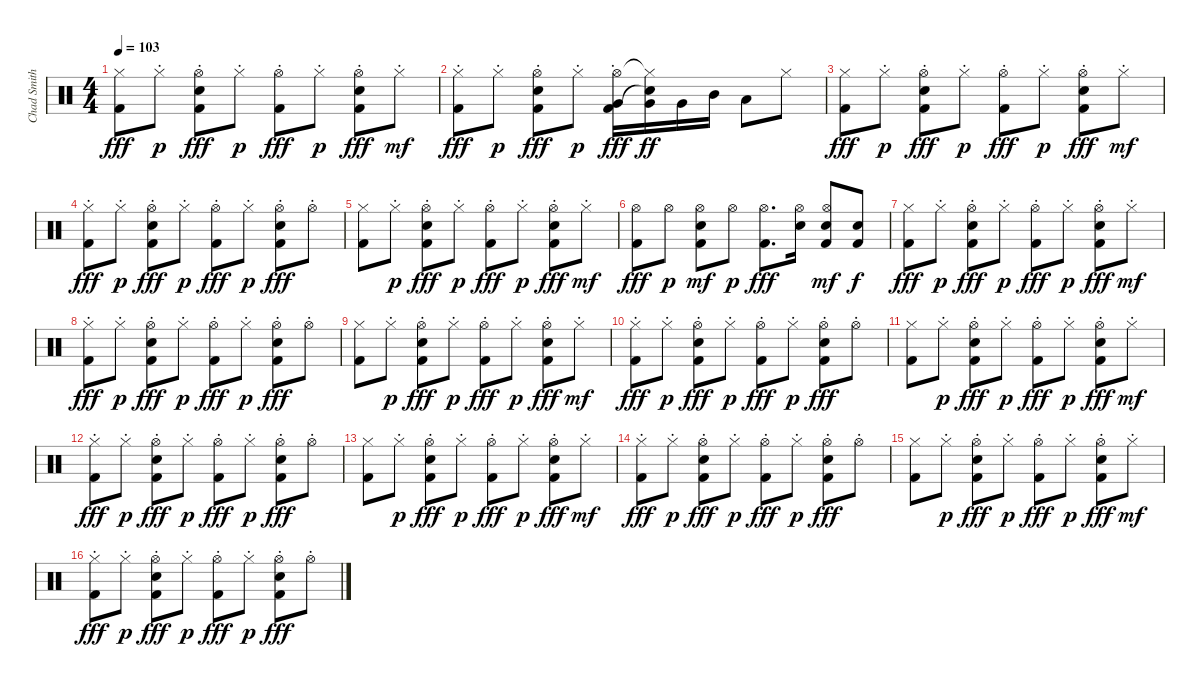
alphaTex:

\track ("Chad Smith - Drums" "Chad Smith") {instrument percussion}
\staff {score}
\articulation defaults
\ts (4 4)
\tempo 103
\clef neutral
\ks c
("Hi-Hat (closed)" "Kick (hit) 2").8{dy fff} "Hi-Hat (closed)"{st}.8{dy p} ("Hi-Hat (open)"{st} "Snare (hit) 2" "Kick (hit) 2").8{dy fff} "Hi-Hat (closed)"{st}.8{dy p} ("Hi-Hat (open)"{st} "Kick (hit) 2").8{dy fff} "Hi-Hat (closed)"{st}.8{dy p} ("Hi-Hat (open)"{st} "Snare (hit) 2" "Kick (hit) 2").8{dy fff} "Hi-Hat (closed)"{st}.8{dy mf} |
("Hi-Hat (closed)"{st} "Kick (hit) 2").8{dy fff} "Hi-Hat (closed)"{st}.8{dy p} ("Hi-Hat (open)"{st} "Snare (hit) 2" "Kick (hit) 2").8{dy fff} "Hi-Hat (closed)"{st}.8{dy p} ("Hi-Hat (open)"{st} "Very Low Tom (hit)" "Kick (hit) 2").16{dy fff} ("Hi-Hat (closed)"{t} "Very Low Tom (hit)" "Snare (hit)"{t}).16{dy ff} "Very Low Tom (hit)".16 "Mid Tom (hit)".16 "Low Tom (hit)".8 "Hi-Hat (closed)".8 |
("Hi-Hat (closed)" "Kick (hit) 2").8{dy fff} "Hi-Hat (closed)"{st}.8{dy p} ("Hi-Hat (open)"{st} "Snare (hit) 2" "Kick (hit) 2").8{dy fff} "Hi-Hat (closed)"{st}.8{dy p} ("Hi-Hat (open)"{st} "Kick (hit) 2").8{dy fff} "Hi-Hat (closed)"{st}.8{dy p} ("Hi-Hat (open)"{st} "Snare (hit) 2" "Kick (hit) 2").8{dy fff} "Hi-Hat (closed)"{st}.8{dy mf} |
("Hi-Hat (closed)"{st} "Kick (hit) 2").8{dy fff} "Hi-Hat (closed)"{st}.8{dy p} ("Hi-Hat (open)"{st} "Snare (hit) 2" "Kick (hit) 2").8{dy fff} "Hi-Hat (closed)"{st}.8{dy p} ("Hi-Hat (open)"{st} "Kick (hit) 2").8{dy fff} "Hi-Hat (closed)"{st}.8{dy p} ("Hi-Hat (open)"{st} "Snare (hit) 2" "Kick (hit) 2").8{dy fff} "Hi-Hat (open)"{st}.8 |
("Hi-Hat (closed)" "Kick (hit) 2").8 "Hi-Hat (closed)"{st}.8{dy p} ("Hi-Hat (open)"{st} "Snare (hit) 2" "Kick (hit) 2").8{dy fff} "Hi-Hat (closed)"{st}.8{dy p} ("Hi-Hat (open)"{st} "Kick (hit) 2").8{dy fff} "Hi-Hat (closed)"{st}.8{dy p} ("Hi-Hat (open)"{st} "Snare (hit) 2" "Kick (hit) 2").8{dy fff} "Hi-Hat (closed)"{st}.8{dy mf} |
("Hi-Hat (open)" "Kick (hit) 2").8{dy fff} "Hi-Hat (open)".8{dy p} ("Hi-Hat (open)" "Snare (hit) 2" "Kick (hit) 2").8{dy mf} "Hi-Hat (open)".8{dy p} ("Hi-Hat (open)" "Kick (hit) 2").8{d dy fff} ("Hi-Hat (open)" "Snare (hit) 2").16 ("Hi-Hat (open)" "Snare (hit) 2" "Kick (hit) 2").8{dy mf} ("Snare (hit) 2" "Kick (hit) 2").8{dy f} |
("Hi-Hat (closed)" "Kick (hit) 2").8{dy fff} "Hi-Hat (closed)"{st}.8{dy p} ("Hi-Hat (open)"{st} "Snare (hit) 2" "Kick (hit) 2").8{dy fff} "Hi-Hat (closed)"{st}.8{dy p} ("Hi-Hat (open)"{st} "Kick (hit) 2").8{dy fff} "Hi-Hat (closed)"{st}.8{dy p} ("Hi-Hat (open)"{st} "Snare (hit) 2" "Kick (hit) 2").8{dy fff} "Hi-Hat (closed)"{st}.8{dy mf} |
("Hi-Hat (closed)"{st} "Kick (hit) 2").8{dy fff} "Hi-Hat (closed)"{st}.8{dy p} ("Hi-Hat (open)"{st} "Snare (hit) 2" "Kick (hit) 2").8{dy fff} "Hi-Hat (closed)"{st}.8{dy p} ("Hi-Hat (open)"{st} "Kick (hit) 2").8{dy fff} "Hi-Hat (closed)"{st}.8{dy p} ("Hi-Hat (open)"{st} "Snare (hit) 2" "Kick (hit) 2").8{dy fff} "Hi-Hat (open)"{st}.8 |
("Hi-Hat (closed)" "Kick (hit) 2").8 "Hi-Hat (closed)"{st}.8{dy p} ("Hi-Hat (open)"{st} "Snare (hit) 2" "Kick (hit) 2").8{dy fff} "Hi-Hat (closed)"{st}.8{dy p} ("Hi-Hat (open)"{st} "Kick (hit) 2").8{dy fff} "Hi-Hat (closed)"{st}.8{dy p} ("Hi-Hat (open)"{st} "Snare (hit) 2" "Kick (hit) 2").8{dy fff} "Hi-Hat (closed)"{st}.8{dy mf} |
("Hi-Hat (closed)"{st} "Kick (hit) 2").8{dy fff} "Hi-Hat (closed)"{st}.8{dy p} ("Hi-Hat (open)"{st} "Snare (hit) 2" "Kick (hit) 2").8{dy fff} "Hi-Hat (closed)"{st}.8{dy p} ("Hi-Hat (open)"{st} "Kick (hit) 2").8{dy fff} "Hi-Hat (closed)"{st}.8{dy p} ("Hi-Hat (open)"{st} "Snare (hit) 2" "Kick (hit) 2").8{dy fff} "Hi-Hat (open)"{st}.8 |
("Hi-Hat (closed)" "Kick (hit) 2").8 "Hi-Hat (closed)"{st}.8{dy p} ("Hi-Hat (open)"{st} "Snare (hit) 2" "Kick (hit) 2").8{dy fff} "Hi-Hat (closed)"{st}.8{dy p} ("Hi-Hat (open)"{st} "Kick (hit) 2").8{dy fff} "Hi-Hat (closed)"{st}.8{dy p} ("Hi-Hat (open)"{st} "Snare (hit) 2" "Kick (hit) 2").8{dy fff} "Hi-Hat (closed)"{st}.8{dy mf} |
("Hi-Hat (closed)"{st} "Kick (hit) 2").8{dy fff} "Hi-Hat (closed)"{st}.8{dy p} ("Hi-Hat (open)"{st} "Snare (hit) 2" "Kick (hit) 2").8{dy fff} "Hi-Hat (closed)"{st}.8{dy p} ("Hi-Hat (open)"{st} "Kick (hit) 2").8{dy fff} "Hi-Hat (closed)"{st}.8{dy p} ("Hi-Hat (open)"{st} "Snare (hit) 2" "Kick (hit) 2").8{dy fff} "Hi-Hat (open)"{st}.8 |
("Hi-Hat (closed)" "Kick (hit) 2").8 "Hi-Hat (closed)"{st}.8{dy p} ("Hi-Hat (open)"{st} "Snare (hit) 2" "Kick (hit) 2").8{dy fff} "Hi-Hat (closed)"{st}.8{dy p} ("Hi-Hat (open)"{st} "Kick (hit) 2").8{dy fff} "Hi-Hat (closed)"{st}.8{dy p} ("Hi-Hat (open)"{st} "Snare (hit) 2" "Kick (hit) 2").8{dy fff} "Hi-Hat (closed)"{st}.8{dy mf} |
("Hi-Hat (closed)"{st} "Kick (hit) 2").8{dy fff} "Hi-Hat (closed)"{st}.8{dy p} ("Hi-Hat (open)"{st} "Snare (hit) 2" "Kick (hit) 2").8{dy fff} "Hi-Hat (closed)"{st}.8{dy p} ("Hi-Hat (open)"{st} "Kick (hit) 2").8{dy fff} "Hi-Hat (closed)"{st}.8{dy p} ("Hi-Hat (open)"{st} "Snare (hit) 2" "Kick (hit) 2").8{dy fff} "Hi-Hat (open)"{st}.8 |
("Hi-Hat (closed)" "Kick (hit) 2").8 "Hi-Hat (closed)"{st}.8{dy p} ("Hi-Hat (open)"{st} "Snare (hit) 2" "Kick (hit) 2").8{dy fff} "Hi-Hat (closed)"{st}.8{dy p} ("Hi-Hat (open)"{st} "Kick (hit) 2").8{dy fff} "Hi-Hat (closed)"{st}.8{dy p} ("Hi-Hat (open)"{st} "Snare (hit) 2" "Kick (hit) 2").8{dy fff} "Hi-Hat (closed)"{st}.8{dy mf} |
("Hi-Hat (closed)"{st} "Kick (hit) 2").8{dy fff} "Hi-Hat (closed)"{st}.8{dy p} ("Hi-Hat (open)"{st} "Snare (hit) 2" "Kick (hit) 2").8{dy fff} "Hi-Hat (closed)"{st}.8{dy p} ("Hi-Hat (open)"{st} "Kick (hit) 2").8{dy fff} "Hi-Hat (closed)"{st}.8{dy p} ("Hi-Hat (open)"{st} "Snare (hit) 2" "Kick (hit) 2").8{dy fff} "Hi-Hat (open)"{st}.8
